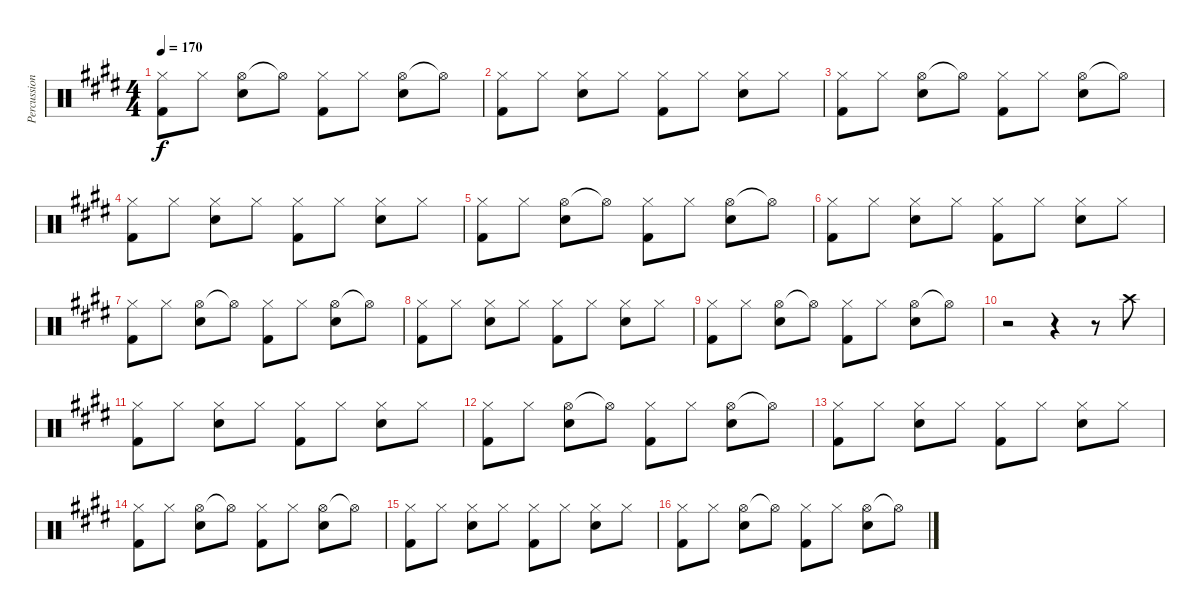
\track ("Percussion" "Percussion") {instrument percussion}
\staff {score}
\articulation defaults
\ts (4 4)
\tempo 170
\clef neutral
\ks e
("Hi-Hat (closed)" "Kick (hit) 2").8{dy f} "Hi-Hat (closed)".8 ("Hi-Hat (open)" "Snare (hit) 2").8 "Hi-Hat (open)"{t}.8 ("Hi-Hat (closed)" "Kick (hit) 2").8 "Hi-Hat (closed)".8 ("Hi-Hat (open)" "Snare (hit) 2").8 "Hi-Hat (open)"{t}.8 |
("Hi-Hat (closed)" "Kick (hit) 2").8 "Hi-Hat (closed)".8 ("Hi-Hat (closed)" "Snare (hit) 2").8 "Hi-Hat (closed)".8 ("Hi-Hat (closed)" "Kick (hit) 2").8 "Hi-Hat (closed)".8 ("Hi-Hat (closed)" "Snare (hit) 2").8 "Hi-Hat (closed)".8 |
("Hi-Hat (closed)" "Kick (hit) 2").8 "Hi-Hat (closed)".8 ("Hi-Hat (open)" "Snare (hit) 2").8 "Hi-Hat (open)"{t}.8 ("Hi-Hat (closed)" "Kick (hit) 2").8 "Hi-Hat (closed)".8 ("Hi-Hat (open)" "Snare (hit) 2").8 "Hi-Hat (open)"{t}.8 |
("Hi-Hat (closed)" "Kick (hit) 2").8 "Hi-Hat (closed)".8 ("Hi-Hat (closed)" "Snare (hit) 2").8 "Hi-Hat (closed)".8 ("Hi-Hat (closed)" "Kick (hit) 2").8 "Hi-Hat (closed)".8 ("Hi-Hat (closed)" "Snare (hit) 2").8 "Hi-Hat (closed)".8 |
("Hi-Hat (closed)" "Kick (hit) 2").8 "Hi-Hat (closed)".8 ("Hi-Hat (open)" "Snare (hit) 2").8 "Hi-Hat (open)"{t}.8 ("Hi-Hat (closed)" "Kick (hit) 2").8 "Hi-Hat (closed)".8 ("Hi-Hat (open)" "Snare (hit) 2").8 "Hi-Hat (open)"{t}.8 |
("Hi-Hat (closed)" "Kick (hit) 2").8 "Hi-Hat (closed)".8 ("Hi-Hat (closed)" "Snare (hit) 2").8 "Hi-Hat (closed)".8 ("Hi-Hat (closed)" "Kick (hit) 2").8 "Hi-Hat (closed)".8 ("Hi-Hat (closed)" "Snare (hit) 2").8 "Hi-Hat (closed)".8 |
("Hi-Hat (closed)" "Kick (hit) 2").8 "Hi-Hat (closed)".8 ("Hi-Hat (open)" "Snare (hit) 2").8 "Hi-Hat (open)"{t}.8 ("Hi-Hat (closed)" "Kick (hit) 2").8 "Hi-Hat (closed)".8 ("Hi-Hat (open)" "Snare (hit) 2").8 "Hi-Hat (open)"{t}.8 |
("Hi-Hat (closed)" "Kick (hit) 2").8 "Hi-Hat (closed)".8 ("Hi-Hat (closed)" "Snare (hit) 2").8 "Hi-Hat (closed)".8 ("Hi-Hat (closed)" "Kick (hit) 2").8 "Hi-Hat (closed)".8 ("Hi-Hat (closed)" "Snare (hit) 2").8 "Hi-Hat (closed)".8 |
("Hi-Hat (closed)" "Kick (hit) 2").8 "Hi-Hat (closed)".8 ("Hi-Hat (open)" "Snare (hit) 2").8 "Hi-Hat (open)"{t}.8 ("Hi-Hat (closed)" "Kick (hit) 2").8 "Hi-Hat (closed)".8 ("Hi-Hat (open)" "Snare (hit) 2").8 "Hi-Hat (open)"{t}.8 |
r.2 r.4 r.8 "Crash high (hit)".8 |
("Hi-Hat (closed)" "Kick (hit) 2").8 "Hi-Hat (closed)".8 ("Hi-Hat (closed)" "Snare (hit) 2").8 "Hi-Hat (closed)".8 ("Hi-Hat (closed)" "Kick (hit) 2").8 "Hi-Hat (closed)".8 ("Hi-Hat (closed)" "Snare (hit) 2").8 "Hi-Hat (closed)".8 |
("Hi-Hat (closed)" "Kick (hit) 2").8 "Hi-Hat (closed)".8 ("Hi-Hat (open)" "Snare (hit) 2").8 "Hi-Hat (open)"{t}.8 ("Hi-Hat (closed)" "Kick (hit) 2").8 "Hi-Hat (closed)".8 ("Hi-Hat (open)" "Snare (hit) 2").8 "Hi-Hat (open)"{t}.8 |
("Hi-Hat (closed)" "Kick (hit) 2").8 "Hi-Hat (closed)".8 ("Hi-Hat (closed)" "Snare (hit) 2").8 "Hi-Hat (closed)".8 ("Hi-Hat (closed)" "Kick (hit) 2").8 "Hi-Hat (closed)".8 ("Hi-Hat (closed)" "Snare (hit) 2").8 "Hi-Hat (closed)".8 |
("Hi-Hat (closed)" "Kick (hit) 2").8 "Hi-Hat (closed)".8 ("Hi-Hat (open)" "Snare (hit) 2").8 "Hi-Hat (open)"{t}.8 ("Hi-Hat (closed)" "Kick (hit) 2").8 "Hi-Hat (closed)".8 ("Hi-Hat (open)" "Snare (hit) 2").8 "Hi-Hat (open)"{t}.8 |
("Hi-Hat (closed)" "Kick (hit) 2").8 "Hi-Hat (closed)".8 ("Hi-Hat (closed)" "Snare (hit) 2").8 "Hi-Hat (closed)".8 ("Hi-Hat (closed)" "Kick (hit) 2").8 "Hi-Hat (closed)".8 ("Hi-Hat (closed)" "Snare (hit) 2").8 "Hi-Hat (closed)".8 |
("Hi-Hat (closed)" "Kick (hit) 2").8 "Hi-Hat (closed)".8 ("Hi-Hat (open)" "Snare (hit) 2").8 "Hi-Hat (open)"{t}.8 ("Hi-Hat (closed)" "Kick (hit) 2").8 "Hi-Hat (closed)".8 ("Hi-Hat (open)" "Snare (hit) 2").8 "Hi-Hat (open)"{t}.8
